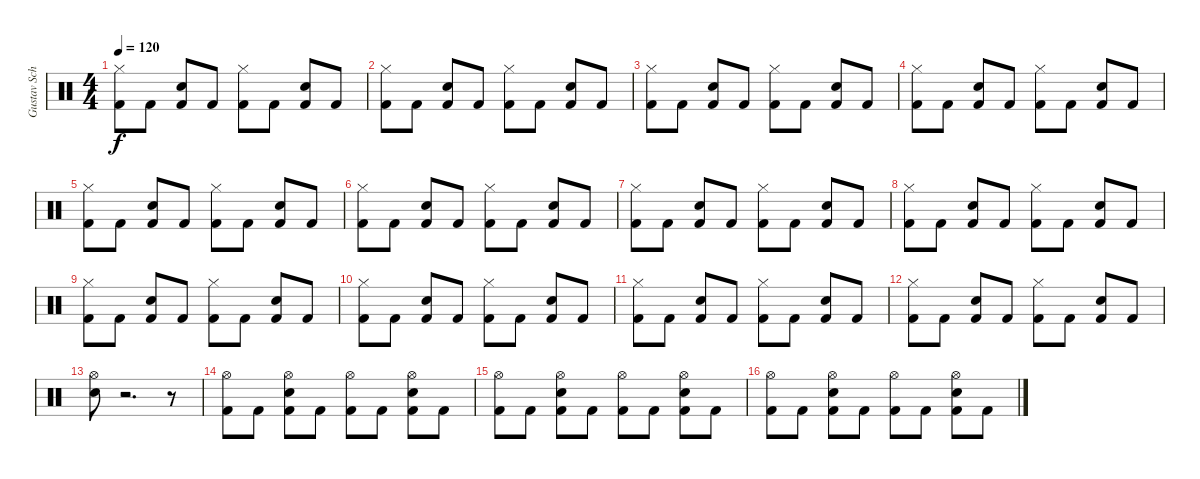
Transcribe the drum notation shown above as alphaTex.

\track ("Gustav Schäfer" "Gustav Sch") {instrument percussion}
\staff {score}
\articulation defaults
\ts (4 4)
\tempo 120
\clef neutral
\ks c
("Hi-Hat (closed)" "Kick (hit) 2").8{dy f} "Kick (hit) 2".8 ("Electric Snare (hit)" "Kick (hit) 2").8 "Kick (hit) 2".8 ("Hi-Hat (closed)" "Kick (hit) 2").8 "Kick (hit) 2".8 ("Electric Snare (hit)" "Kick (hit) 2").8 "Kick (hit) 2".8 |
("Hi-Hat (closed)" "Kick (hit) 2").8 "Kick (hit) 2".8 ("Electric Snare (hit)" "Kick (hit) 2").8 "Kick (hit) 2".8 ("Hi-Hat (closed)" "Kick (hit) 2").8 "Kick (hit) 2".8 ("Electric Snare (hit)" "Kick (hit) 2").8 "Kick (hit) 2".8 |
("Hi-Hat (closed)" "Kick (hit) 2").8 "Kick (hit) 2".8 ("Electric Snare (hit)" "Kick (hit) 2").8 "Kick (hit) 2".8 ("Hi-Hat (closed)" "Kick (hit) 2").8 "Kick (hit) 2".8 ("Electric Snare (hit)" "Kick (hit) 2").8 "Kick (hit) 2".8 |
("Hi-Hat (closed)" "Kick (hit) 2").8 "Kick (hit) 2".8 ("Electric Snare (hit)" "Kick (hit) 2").8 "Kick (hit) 2".8 ("Hi-Hat (closed)" "Kick (hit) 2").8 "Kick (hit) 2".8 ("Electric Snare (hit)" "Kick (hit) 2").8 "Kick (hit) 2".8 |
("Hi-Hat (closed)" "Kick (hit) 2").8 "Kick (hit) 2".8 ("Electric Snare (hit)" "Kick (hit) 2").8 "Kick (hit) 2".8 ("Hi-Hat (closed)" "Kick (hit) 2").8 "Kick (hit) 2".8 ("Electric Snare (hit)" "Kick (hit) 2").8 "Kick (hit) 2".8 |
("Hi-Hat (closed)" "Kick (hit) 2").8 "Kick (hit) 2".8 ("Electric Snare (hit)" "Kick (hit) 2").8 "Kick (hit) 2".8 ("Hi-Hat (closed)" "Kick (hit) 2").8 "Kick (hit) 2".8 ("Electric Snare (hit)" "Kick (hit) 2").8 "Kick (hit) 2".8 |
("Hi-Hat (closed)" "Kick (hit) 2").8 "Kick (hit) 2".8 ("Electric Snare (hit)" "Kick (hit) 2").8 "Kick (hit) 2".8 ("Hi-Hat (closed)" "Kick (hit) 2").8 "Kick (hit) 2".8 ("Electric Snare (hit)" "Kick (hit) 2").8 "Kick (hit) 2".8 |
("Hi-Hat (closed)" "Kick (hit) 2").8 "Kick (hit) 2".8 ("Electric Snare (hit)" "Kick (hit) 2").8 "Kick (hit) 2".8 ("Hi-Hat (closed)" "Kick (hit) 2").8 "Kick (hit) 2".8 ("Electric Snare (hit)" "Kick (hit) 2").8 "Kick (hit) 2".8 |
("Hi-Hat (closed)" "Kick (hit) 2").8 "Kick (hit) 2".8 ("Electric Snare (hit)" "Kick (hit) 2").8 "Kick (hit) 2".8 ("Hi-Hat (closed)" "Kick (hit) 2").8 "Kick (hit) 2".8 ("Electric Snare (hit)" "Kick (hit) 2").8 "Kick (hit) 2".8 |
("Hi-Hat (closed)" "Kick (hit) 2").8 "Kick (hit) 2".8 ("Electric Snare (hit)" "Kick (hit) 2").8 "Kick (hit) 2".8 ("Hi-Hat (closed)" "Kick (hit) 2").8 "Kick (hit) 2".8 ("Electric Snare (hit)" "Kick (hit) 2").8 "Kick (hit) 2".8 |
("Hi-Hat (closed)" "Kick (hit) 2").8 "Kick (hit) 2".8 ("Electric Snare (hit)" "Kick (hit) 2").8 "Kick (hit) 2".8 ("Hi-Hat (closed)" "Kick (hit) 2").8 "Kick (hit) 2".8 ("Electric Snare (hit)" "Kick (hit) 2").8 "Kick (hit) 2".8 |
("Hi-Hat (closed)" "Kick (hit) 2").8 "Kick (hit) 2".8 ("Electric Snare (hit)" "Kick (hit) 2").8 "Kick (hit) 2".8 ("Hi-Hat (closed)" "Kick (hit) 2").8 "Kick (hit) 2".8 ("Electric Snare (hit)" "Kick (hit) 2").8 "Kick (hit) 2".8 |
("Hi-Hat (open)" "Electric Snare (hit)").8 r.2{d} r.8 |
("Hi-Hat (open)" "Kick (hit) 2").8 "Kick (hit) 2".8 ("Hi-Hat (open)" "Electric Snare (hit)" "Kick (hit) 2").8 "Kick (hit) 2".8 ("Hi-Hat (open)" "Kick (hit) 2").8 "Kick (hit) 2".8 ("Hi-Hat (open)" "Electric Snare (hit)" "Kick (hit) 2").8 "Kick (hit) 2".8 |
("Hi-Hat (open)" "Kick (hit) 2").8 "Kick (hit) 2".8 ("Hi-Hat (open)" "Electric Snare (hit)" "Kick (hit) 2").8 "Kick (hit) 2".8 ("Hi-Hat (open)" "Kick (hit) 2").8 "Kick (hit) 2".8 ("Hi-Hat (open)" "Electric Snare (hit)" "Kick (hit) 2").8 "Kick (hit) 2".8 |
("Hi-Hat (open)" "Kick (hit) 2").8 "Kick (hit) 2".8 ("Hi-Hat (open)" "Electric Snare (hit)" "Kick (hit) 2").8 "Kick (hit) 2".8 ("Hi-Hat (open)" "Kick (hit) 2").8 "Kick (hit) 2".8 ("Hi-Hat (open)" "Electric Snare (hit)" "Kick (hit) 2").8 "Kick (hit) 2".8
